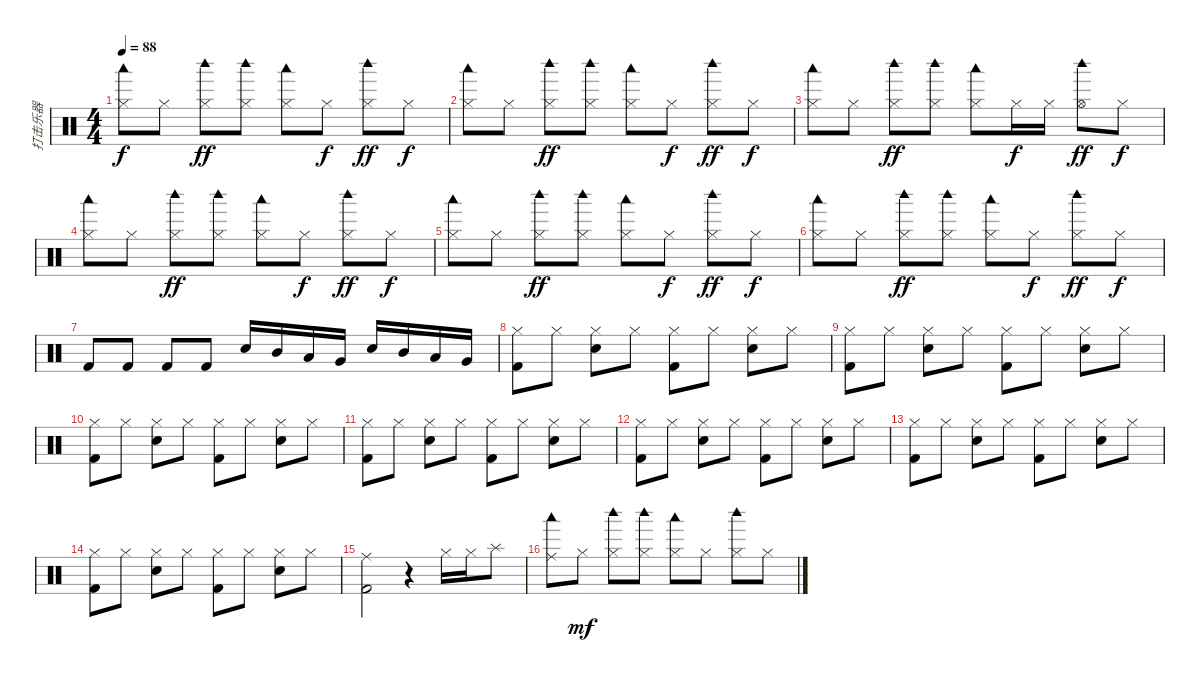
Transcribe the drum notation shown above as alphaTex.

\track ("打击乐器" "打击乐器") {instrument percussion}
\staff {score}
\articulation defaults
\ts (4 4)
\tempo 88
\clef neutral
\ks c
("Hi-Hat (closed)" "Woodblock low (hit)").8{dy f} "Hi-Hat (closed)".8 ("Hi-Hat (closed)" "Woodblock high (hit)").8{dy ff} ("Hi-Hat (closed)" "Woodblock high (hit)").8 ("Hi-Hat (closed)" "Woodblock low (hit)").8 "Hi-Hat (closed)".8{dy f} ("Hi-Hat (closed)" "Woodblock high (hit)").8{dy ff} "Hi-Hat (closed)".8{dy f} |
("Hi-Hat (closed)" "Woodblock low (hit)").8 "Hi-Hat (closed)".8 ("Hi-Hat (closed)" "Woodblock high (hit)").8{dy ff} ("Hi-Hat (closed)" "Woodblock high (hit)").8 ("Hi-Hat (closed)" "Woodblock low (hit)").8 "Hi-Hat (closed)".8{dy f} ("Hi-Hat (closed)" "Woodblock high (hit)").8{dy ff} "Hi-Hat (closed)".8{dy f} |
("Hi-Hat (closed)" "Woodblock low (hit)").8 "Hi-Hat (closed)".8 ("Hi-Hat (closed)" "Woodblock high (hit)").8{dy ff} ("Hi-Hat (closed)" "Woodblock high (hit)").8 ("Hi-Hat (closed)" "Woodblock low (hit)").8 "Hi-Hat (closed)".16{dy f} "Hi-Hat (closed)".16 ("Hi-Hat (open)" "Woodblock high (hit)").8{dy ff} "Hi-Hat (closed)".8{dy f} |
("Hi-Hat (closed)" "Woodblock low (hit)").8 "Hi-Hat (closed)".8 ("Hi-Hat (closed)" "Woodblock high (hit)").8{dy ff} ("Hi-Hat (closed)" "Woodblock high (hit)").8 ("Hi-Hat (closed)" "Woodblock low (hit)").8 "Hi-Hat (closed)".8{dy f} ("Hi-Hat (closed)" "Woodblock high (hit)").8{dy ff} "Hi-Hat (closed)".8{dy f} |
("Hi-Hat (closed)" "Woodblock low (hit)").8 "Hi-Hat (closed)".8 ("Hi-Hat (closed)" "Woodblock high (hit)").8{dy ff} ("Hi-Hat (closed)" "Woodblock high (hit)").8 ("Hi-Hat (closed)" "Woodblock low (hit)").8 "Hi-Hat (closed)".8{dy f} ("Hi-Hat (closed)" "Woodblock high (hit)").8{dy ff} "Hi-Hat (closed)".8{dy f} |
("Hi-Hat (closed)" "Woodblock low (hit)").8 "Hi-Hat (closed)".8 ("Hi-Hat (closed)" "Woodblock high (hit)").8{dy ff} ("Hi-Hat (closed)" "Woodblock high (hit)").8 ("Hi-Hat (closed)" "Woodblock low (hit)").8 "Hi-Hat (closed)".8{dy f} ("Hi-Hat (closed)" "Woodblock high (hit)").8{dy ff} "Hi-Hat (closed)".8{dy f} |
"Kick (hit) 2".8 "Kick (hit) 2".8 "Kick (hit) 2".8 "Kick (hit) 2".8 "Snare (hit) 2".16 "Mid Tom (hit)".16 "Low Tom (hit)".16 "Very Low Tom (hit)".16 "Snare (hit) 2".16 "Mid Tom (hit)".16 "Low Tom (hit)".16 "Very Low Tom (hit)".16 |
("Hi-Hat (closed)" "Kick (hit) 2").8 "Hi-Hat (closed)".8 ("Hi-Hat (closed)" "Snare (hit) 2").8 "Hi-Hat (closed)".8 ("Hi-Hat (closed)" "Kick (hit) 2").8 "Hi-Hat (closed)".8 ("Hi-Hat (closed)" "Snare (hit) 2").8 "Hi-Hat (closed)".8 |
("Hi-Hat (closed)" "Kick (hit) 2").8 "Hi-Hat (closed)".8 ("Hi-Hat (closed)" "Snare (hit) 2").8 "Hi-Hat (closed)".8 ("Hi-Hat (closed)" "Kick (hit) 2").8 "Hi-Hat (closed)".8 ("Hi-Hat (closed)" "Snare (hit) 2").8 "Hi-Hat (closed)".8 |
("Hi-Hat (closed)" "Kick (hit) 2").8 "Hi-Hat (closed)".8 ("Hi-Hat (closed)" "Snare (hit) 2").8 "Hi-Hat (closed)".8 ("Hi-Hat (closed)" "Kick (hit) 2").8 "Hi-Hat (closed)".8 ("Hi-Hat (closed)" "Snare (hit) 2").8 "Hi-Hat (closed)".8 |
("Hi-Hat (closed)" "Kick (hit) 2").8 "Hi-Hat (closed)".8 ("Hi-Hat (closed)" "Snare (hit) 2").8 "Hi-Hat (closed)".8 ("Hi-Hat (closed)" "Kick (hit) 2").8 "Hi-Hat (closed)".8 ("Hi-Hat (closed)" "Snare (hit) 2").8 "Hi-Hat (closed)".8 |
("Hi-Hat (closed)" "Kick (hit) 2").8 "Hi-Hat (closed)".8 ("Hi-Hat (closed)" "Snare (hit) 2").8 "Hi-Hat (closed)".8 ("Hi-Hat (closed)" "Kick (hit) 2").8 "Hi-Hat (closed)".8 ("Hi-Hat (closed)" "Snare (hit) 2").8 "Hi-Hat (closed)".8 |
("Hi-Hat (closed)" "Kick (hit) 2").8 "Hi-Hat (closed)".8 ("Hi-Hat (closed)" "Snare (hit) 2").8 "Hi-Hat (closed)".8 ("Hi-Hat (closed)" "Kick (hit) 2").8 "Hi-Hat (closed)".8 ("Hi-Hat (closed)" "Snare (hit) 2").8 "Hi-Hat (closed)".8 |
("Hi-Hat (closed)" "Kick (hit) 2").8 "Hi-Hat (closed)".8 ("Hi-Hat (closed)" "Snare (hit) 2").8 "Hi-Hat (closed)".8 ("Hi-Hat (closed)" "Kick (hit) 2").8 "Hi-Hat (closed)".8 ("Hi-Hat (closed)" "Snare (hit) 2").8 "Hi-Hat (closed)".8 |
("Ride (middle)" "Kick (hit) 2").2 r.4 "Hi-Hat (closed)".16 "Hi-Hat (closed)".16 "Splash (hit)".8 |
("Ride (middle)" "Woodblock low (hit)").8 "Hi-Hat (closed)".8{dy mf} ("Hi-Hat (closed)" "Woodblock high (hit)").8 ("Hi-Hat (closed)" "Woodblock high (hit)").8 ("Hi-Hat (closed)" "Woodblock low (hit)").8 "Hi-Hat (closed)".8 ("Hi-Hat (closed)" "Woodblock high (hit)").8 "Hi-Hat (closed)".8
